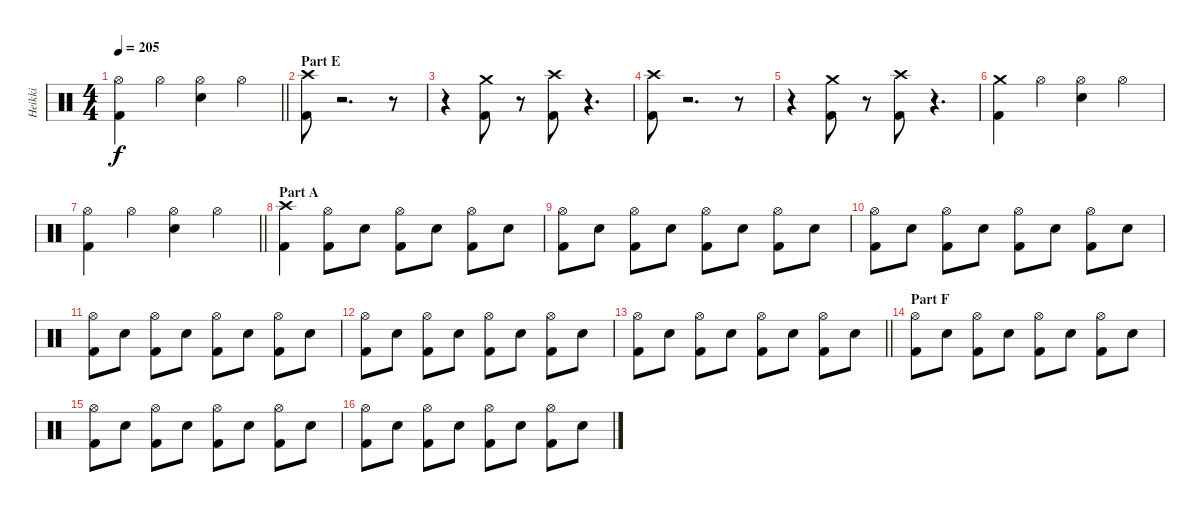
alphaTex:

\track ("Heikki" "Heikki") {instrument percussion}
\staff {score}
\articulation defaults
\ts (4 4)
\tempo 205
\clef neutral
\barLineRight lightlight
\ks c
("Hi-Hat (open)" "Kick (hit) 2").4{dy f} "Hi-Hat (open)".4 ("Hi-Hat (open)" "Electric Snare (hit)").4 "Hi-Hat (open)".4 |
\section ("" "Part E")
("Crash high (hit)" "Kick (hit) 2").8 r.2{d} r.8 |
r.4 ("Crash medium (hit)" "Kick (hit) 2").8 r.8 ("Crash high (hit)" "Kick (hit) 2").8 r.4{d} |
("Crash high (hit)" "Kick (hit) 2").8 r.2{d} r.8 |
r.4 ("Crash medium (hit)" "Kick (hit) 2").8 r.8 ("Crash high (hit)" "Kick (hit) 2").8 r.4{d} |
("Crash medium (hit)" "Kick (hit) 2").4 "Hi-Hat (open)".4 ("Hi-Hat (open)" "Electric Snare (hit)").4 "Hi-Hat (open)".4 |
\barLineRight lightlight
("Hi-Hat (open)" "Kick (hit) 2").4 "Hi-Hat (open)".4 ("Hi-Hat (open)" "Electric Snare (hit)").4 "Hi-Hat (open)".4 |
\section ("" "Part A")
("Crash high (hit)" "Kick (hit) 2").4 ("Hi-Hat (open)" "Kick (hit) 2").8 "Electric Snare (hit)".8 ("Hi-Hat (open)" "Kick (hit) 2").8 "Electric Snare (hit)".8 ("Hi-Hat (open)" "Kick (hit) 2").8 "Electric Snare (hit)".8 |
("Hi-Hat (open)" "Kick (hit) 2").8 "Electric Snare (hit)".8 ("Hi-Hat (open)" "Kick (hit) 2").8 "Electric Snare (hit)".8 ("Hi-Hat (open)" "Kick (hit) 2").8 "Electric Snare (hit)".8 ("Hi-Hat (open)" "Kick (hit) 2").8 "Electric Snare (hit)".8 |
("Hi-Hat (open)" "Kick (hit) 2").8 "Electric Snare (hit)".8 ("Hi-Hat (open)" "Kick (hit) 2").8 "Electric Snare (hit)".8 ("Hi-Hat (open)" "Kick (hit) 2").8 "Electric Snare (hit)".8 ("Hi-Hat (open)" "Kick (hit) 2").8 "Electric Snare (hit)".8 |
("Hi-Hat (open)" "Kick (hit) 2").8 "Electric Snare (hit)".8 ("Hi-Hat (open)" "Kick (hit) 2").8 "Electric Snare (hit)".8 ("Hi-Hat (open)" "Kick (hit) 2").8 "Electric Snare (hit)".8 ("Hi-Hat (open)" "Kick (hit) 2").8 "Electric Snare (hit)".8 |
("Hi-Hat (open)" "Kick (hit) 2").8 "Electric Snare (hit)".8 ("Hi-Hat (open)" "Kick (hit) 2").8 "Electric Snare (hit)".8 ("Hi-Hat (open)" "Kick (hit) 2").8 "Electric Snare (hit)".8 ("Hi-Hat (open)" "Kick (hit) 2").8 "Electric Snare (hit)".8 |
\barLineRight lightlight
("Hi-Hat (open)" "Kick (hit) 2").8 "Electric Snare (hit)".8 ("Hi-Hat (open)" "Kick (hit) 2").8 "Electric Snare (hit)".8 ("Hi-Hat (open)" "Kick (hit) 2").8 "Electric Snare (hit)".8 ("Hi-Hat (open)" "Kick (hit) 2").8 "Electric Snare (hit)".8 |
\section ("" "Part F")
("Hi-Hat (open)" "Kick (hit) 2").8 "Electric Snare (hit)".8 ("Hi-Hat (open)" "Kick (hit) 2").8 "Electric Snare (hit)".8 ("Hi-Hat (open)" "Kick (hit) 2").8 "Electric Snare (hit)".8 ("Hi-Hat (open)" "Kick (hit) 2").8 "Electric Snare (hit)".8 |
("Hi-Hat (open)" "Kick (hit) 2").8 "Electric Snare (hit)".8 ("Hi-Hat (open)" "Kick (hit) 2").8 "Electric Snare (hit)".8 ("Hi-Hat (open)" "Kick (hit) 2").8 "Electric Snare (hit)".8 ("Hi-Hat (open)" "Kick (hit) 2").8 "Electric Snare (hit)".8 |
("Hi-Hat (open)" "Kick (hit) 2").8 "Electric Snare (hit)".8 ("Hi-Hat (open)" "Kick (hit) 2").8 "Electric Snare (hit)".8 ("Hi-Hat (open)" "Kick (hit) 2").8 "Electric Snare (hit)".8 ("Hi-Hat (open)" "Kick (hit) 2").8 "Electric Snare (hit)".8
